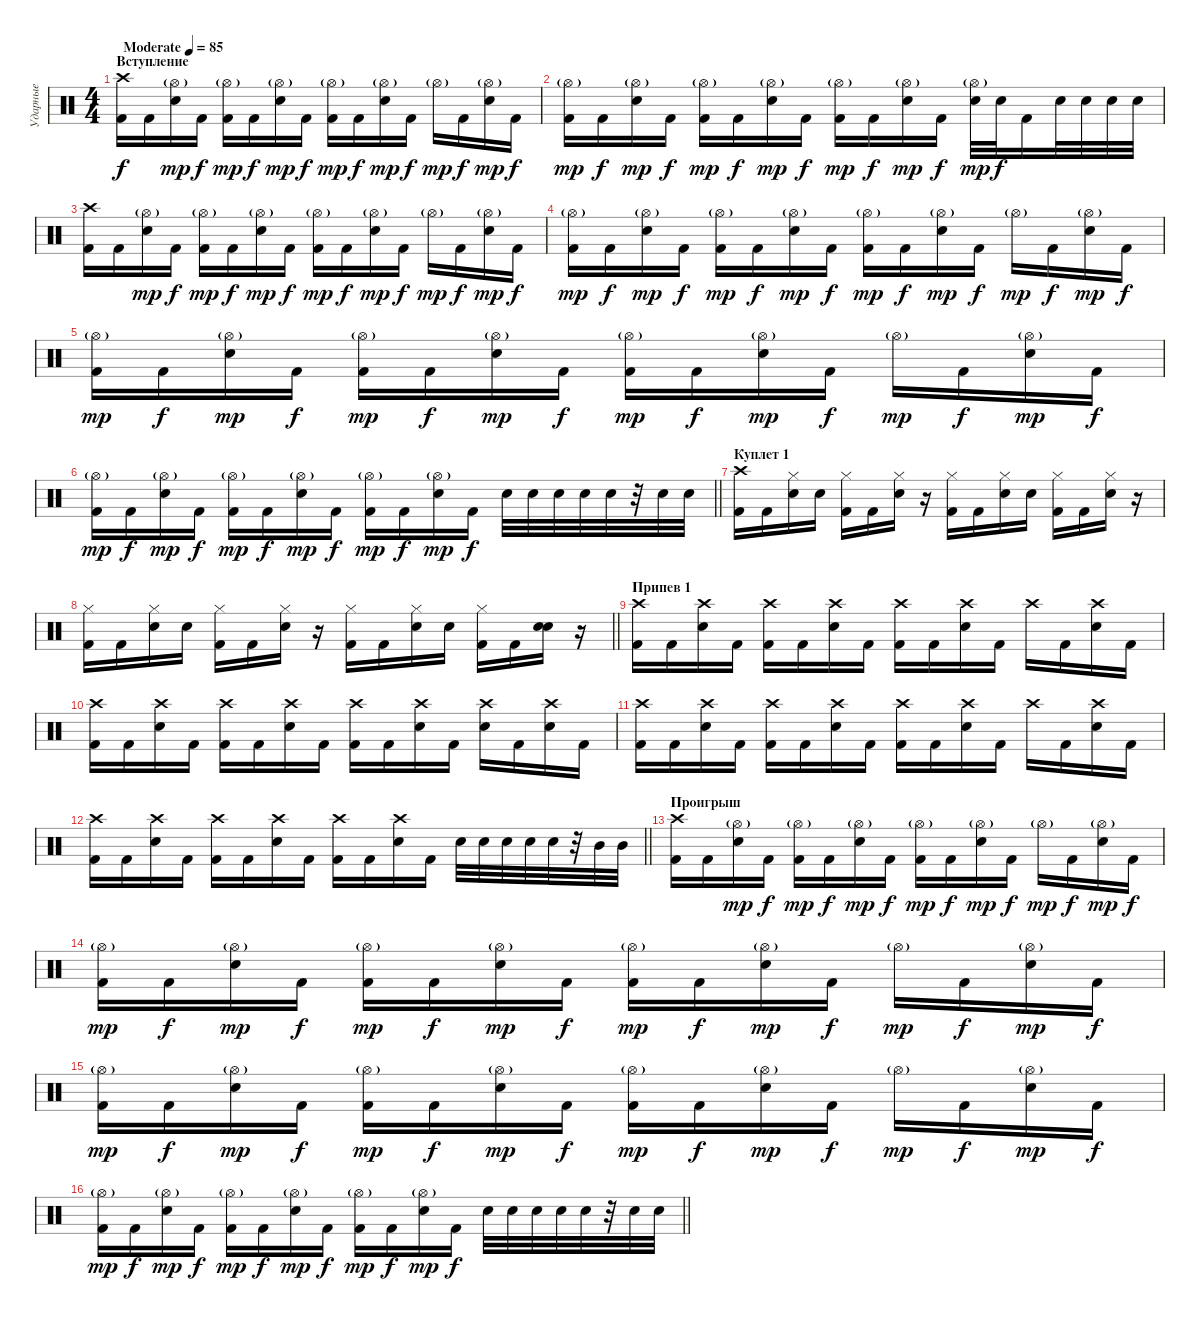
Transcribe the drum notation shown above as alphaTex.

\track ("Ударные" "Ударные") {instrument percussion}
\staff {score}
\articulation defaults
\ts (4 4)
\section ("" "Вступление")
\tempo (85 "Moderate")
\clef neutral
\ks c
("Crash high (hit)" "Kick (hit) 2").16{dy f} "Kick (hit) 2".16 ("Hi-Hat (open)"{g} "Electric Snare (hit)").16{dy mp} "Kick (hit) 2".16{dy f} ("Hi-Hat (open)"{g} "Kick (hit) 2").16{dy mp} "Kick (hit) 2".16{dy f} ("Hi-Hat (open)"{g} "Electric Snare (hit)").16{dy mp} "Kick (hit) 2".16{dy f} ("Hi-Hat (open)"{g} "Kick (hit) 2").16{dy mp} "Kick (hit) 2".16{dy f} ("Hi-Hat (open)"{g} "Electric Snare (hit)").16{dy mp} "Kick (hit) 2".16{dy f} "Hi-Hat (open)"{g}.16{dy mp} "Kick (hit) 2".16{dy f} ("Hi-Hat (open)"{g} "Electric Snare (hit)").16{dy mp} "Kick (hit) 2".16{dy f} |
("Hi-Hat (open)"{g} "Kick (hit) 2").16{dy mp} "Kick (hit) 2".16{dy f} ("Hi-Hat (open)"{g} "Electric Snare (hit)").16{dy mp} "Kick (hit) 2".16{dy f} ("Hi-Hat (open)"{g} "Kick (hit) 2").16{dy mp} "Kick (hit) 2".16{dy f} ("Hi-Hat (open)"{g} "Electric Snare (hit)").16{dy mp} "Kick (hit) 2".16{dy f} ("Hi-Hat (open)"{g} "Kick (hit) 2").16{dy mp} "Kick (hit) 2".16{dy f} ("Hi-Hat (open)"{g} "Electric Snare (hit)").16{dy mp} "Kick (hit) 2".16{dy f} ("Hi-Hat (open)"{g} "Electric Snare (hit)").32{dy mp} "Electric Snare (hit)".32{dy f} "Kick (hit) 2".16 "Electric Snare (hit)".32 "Electric Snare (hit)".32 "Electric Snare (hit)".32 "Electric Snare (hit)".32 |
("Crash high (hit)" "Kick (hit) 2").16 "Kick (hit) 2".16 ("Hi-Hat (open)"{g} "Electric Snare (hit)").16{dy mp} "Kick (hit) 2".16{dy f} ("Hi-Hat (open)"{g} "Kick (hit) 2").16{dy mp} "Kick (hit) 2".16{dy f} ("Hi-Hat (open)"{g} "Electric Snare (hit)").16{dy mp} "Kick (hit) 2".16{dy f} ("Hi-Hat (open)"{g} "Kick (hit) 2").16{dy mp} "Kick (hit) 2".16{dy f} ("Hi-Hat (open)"{g} "Electric Snare (hit)").16{dy mp} "Kick (hit) 2".16{dy f} "Hi-Hat (open)"{g}.16{dy mp} "Kick (hit) 2".16{dy f} ("Hi-Hat (open)"{g} "Electric Snare (hit)").16{dy mp} "Kick (hit) 2".16{dy f} |
("Hi-Hat (open)"{g} "Kick (hit) 2").16{dy mp} "Kick (hit) 2".16{dy f} ("Hi-Hat (open)"{g} "Electric Snare (hit)").16{dy mp} "Kick (hit) 2".16{dy f} ("Hi-Hat (open)"{g} "Kick (hit) 2").16{dy mp} "Kick (hit) 2".16{dy f} ("Hi-Hat (open)"{g} "Electric Snare (hit)").16{dy mp} "Kick (hit) 2".16{dy f} ("Hi-Hat (open)"{g} "Kick (hit) 2").16{dy mp} "Kick (hit) 2".16{dy f} ("Hi-Hat (open)"{g} "Electric Snare (hit)").16{dy mp} "Kick (hit) 2".16{dy f} "Hi-Hat (open)"{g}.16{dy mp} "Kick (hit) 2".16{dy f} ("Hi-Hat (open)"{g} "Electric Snare (hit)").16{dy mp} "Kick (hit) 2".16{dy f} |
("Hi-Hat (open)"{g} "Kick (hit) 2").16{dy mp} "Kick (hit) 2".16{dy f} ("Hi-Hat (open)"{g} "Electric Snare (hit)").16{dy mp} "Kick (hit) 2".16{dy f} ("Hi-Hat (open)"{g} "Kick (hit) 2").16{dy mp} "Kick (hit) 2".16{dy f} ("Hi-Hat (open)"{g} "Electric Snare (hit)").16{dy mp} "Kick (hit) 2".16{dy f} ("Hi-Hat (open)"{g} "Kick (hit) 2").16{dy mp} "Kick (hit) 2".16{dy f} ("Hi-Hat (open)"{g} "Electric Snare (hit)").16{dy mp} "Kick (hit) 2".16{dy f} "Hi-Hat (open)"{g}.16{dy mp} "Kick (hit) 2".16{dy f} ("Hi-Hat (open)"{g} "Electric Snare (hit)").16{dy mp} "Kick (hit) 2".16{dy f} |
\barLineRight lightlight
("Hi-Hat (open)"{g} "Kick (hit) 2").16{dy mp} "Kick (hit) 2".16{dy f} ("Hi-Hat (open)"{g} "Electric Snare (hit)").16{dy mp} "Kick (hit) 2".16{dy f} ("Hi-Hat (open)"{g} "Kick (hit) 2").16{dy mp} "Kick (hit) 2".16{dy f} ("Hi-Hat (open)"{g} "Electric Snare (hit)").16{dy mp} "Kick (hit) 2".16{dy f} ("Hi-Hat (open)"{g} "Kick (hit) 2").16{dy mp} "Kick (hit) 2".16{dy f} ("Hi-Hat (open)"{g} "Electric Snare (hit)").16{dy mp} "Kick (hit) 2".16{dy f} "Electric Snare (hit)".32 "Electric Snare (hit)".32 "Electric Snare (hit)".32 "Electric Snare (hit)".32 "Electric Snare (hit)".32 r.32 "Electric Snare (hit)".32 "Electric Snare (hit)".32 |
\section ("" "Куплет 1")
("Crash high (hit)" "Kick (hit) 2").16 "Kick (hit) 2".16 ("Hi-Hat (closed)" "Electric Snare (hit)").16 "Electric Snare (hit)".16 ("Hi-Hat (closed)" "Kick (hit) 2").16 "Kick (hit) 2".16 ("Hi-Hat (closed)" "Electric Snare (hit)").16 r.16 ("Hi-Hat (closed)" "Kick (hit) 2").16 "Kick (hit) 2".16 ("Hi-Hat (closed)" "Electric Snare (hit)").16 "Electric Snare (hit)".16 ("Hi-Hat (closed)" "Kick (hit) 2").16 "Kick (hit) 2".16 ("Hi-Hat (closed)" "Electric Snare (hit)").16 r.16 |
\barLineRight lightlight
("Hi-Hat (closed)" "Kick (hit) 2").16 "Kick (hit) 2".16 ("Hi-Hat (closed)" "Electric Snare (hit)").16 "Electric Snare (hit)".16 ("Hi-Hat (closed)" "Kick (hit) 2").16 "Kick (hit) 2".16 ("Hi-Hat (closed)" "Electric Snare (hit)").16 r.16 ("Hi-Hat (closed)" "Kick (hit) 2").16 "Kick (hit) 2".16 ("Hi-Hat (closed)" "Electric Snare (hit)").16 "Electric Snare (hit)".16 ("Hi-Hat (closed)" "Kick (hit) 2").16 "Kick (hit) 2".16 ("Electric Snare (hit)" "Electric Snare (hit)").16 r.16 |
\section ("" "Припев 1")
("Crash high (hit)" "Kick (hit) 2").16 "Kick (hit) 2".16 ("Crash high (hit)" "Electric Snare (hit)").16 "Kick (hit) 2".16 ("Crash high (hit)" "Kick (hit) 2").16 "Kick (hit) 2".16 ("Crash high (hit)" "Electric Snare (hit)").16 "Kick (hit) 2".16 ("Crash high (hit)" "Kick (hit) 2").16 "Kick (hit) 2".16 ("Crash high (hit)" "Electric Snare (hit)").16 "Kick (hit) 2".16 "Crash high (hit)".16 "Kick (hit) 2".16 ("Crash high (hit)" "Electric Snare (hit)").16 "Kick (hit) 2".16 |
("Crash high (hit)" "Kick (hit) 2").16 "Kick (hit) 2".16 ("Crash high (hit)" "Electric Snare (hit)").16 "Kick (hit) 2".16 ("Crash high (hit)" "Kick (hit) 2").16 "Kick (hit) 2".16 ("Crash high (hit)" "Electric Snare (hit)").16 "Kick (hit) 2".16 ("Crash high (hit)" "Kick (hit) 2").16 "Kick (hit) 2".16 ("Crash high (hit)" "Electric Snare (hit)").16 "Kick (hit) 2".16 ("Crash high (hit)" "Electric Snare (hit)").16 "Kick (hit) 2".16 ("Crash high (hit)" "Electric Snare (hit)").16 "Kick (hit) 2".16 |
("Crash high (hit)" "Kick (hit) 2").16 "Kick (hit) 2".16 ("Crash high (hit)" "Electric Snare (hit)").16 "Kick (hit) 2".16 ("Crash high (hit)" "Kick (hit) 2").16 "Kick (hit) 2".16 ("Crash high (hit)" "Electric Snare (hit)").16 "Kick (hit) 2".16 ("Crash high (hit)" "Kick (hit) 2").16 "Kick (hit) 2".16 ("Crash high (hit)" "Electric Snare (hit)").16 "Kick (hit) 2".16 "Crash high (hit)".16 "Kick (hit) 2".16 ("Crash high (hit)" "Electric Snare (hit)").16 "Kick (hit) 2".16 |
\barLineRight lightlight
("Crash high (hit)" "Kick (hit) 2").16 "Kick (hit) 2".16 ("Crash high (hit)" "Electric Snare (hit)").16 "Kick (hit) 2".16 ("Crash high (hit)" "Kick (hit) 2").16 "Kick (hit) 2".16 ("Crash high (hit)" "Electric Snare (hit)").16 "Kick (hit) 2".16 ("Crash high (hit)" "Kick (hit) 2").16 "Kick (hit) 2".16 ("Crash high (hit)" "Electric Snare (hit)").16 "Kick (hit) 2".16 "Electric Snare (hit)".32 "Electric Snare (hit)".32 "Electric Snare (hit)".32 "Electric Snare (hit)".32 "Electric Snare (hit)".32 r.32 "Mid Tom (hit)".32 "Mid Tom (hit)".32 |
\section ("" "Проигрыш")
("Crash high (hit)" "Kick (hit) 2").16 "Kick (hit) 2".16 ("Hi-Hat (open)"{g} "Electric Snare (hit)").16{dy mp} "Kick (hit) 2".16{dy f} ("Hi-Hat (open)"{g} "Kick (hit) 2").16{dy mp} "Kick (hit) 2".16{dy f} ("Hi-Hat (open)"{g} "Electric Snare (hit)").16{dy mp} "Kick (hit) 2".16{dy f} ("Hi-Hat (open)"{g} "Kick (hit) 2").16{dy mp} "Kick (hit) 2".16{dy f} ("Hi-Hat (open)"{g} "Electric Snare (hit)").16{dy mp} "Kick (hit) 2".16{dy f} "Hi-Hat (open)"{g}.16{dy mp} "Kick (hit) 2".16{dy f} ("Hi-Hat (open)"{g} "Electric Snare (hit)").16{dy mp} "Kick (hit) 2".16{dy f} |
("Hi-Hat (open)"{g} "Kick (hit) 2").16{dy mp} "Kick (hit) 2".16{dy f} ("Hi-Hat (open)"{g} "Electric Snare (hit)").16{dy mp} "Kick (hit) 2".16{dy f} ("Hi-Hat (open)"{g} "Kick (hit) 2").16{dy mp} "Kick (hit) 2".16{dy f} ("Hi-Hat (open)"{g} "Electric Snare (hit)").16{dy mp} "Kick (hit) 2".16{dy f} ("Hi-Hat (open)"{g} "Kick (hit) 2").16{dy mp} "Kick (hit) 2".16{dy f} ("Hi-Hat (open)"{g} "Electric Snare (hit)").16{dy mp} "Kick (hit) 2".16{dy f} "Hi-Hat (open)"{g}.16{dy mp} "Kick (hit) 2".16{dy f} ("Hi-Hat (open)"{g} "Electric Snare (hit)").16{dy mp} "Kick (hit) 2".16{dy f} |
("Hi-Hat (open)"{g} "Kick (hit) 2").16{dy mp} "Kick (hit) 2".16{dy f} ("Hi-Hat (open)"{g} "Electric Snare (hit)").16{dy mp} "Kick (hit) 2".16{dy f} ("Hi-Hat (open)"{g} "Kick (hit) 2").16{dy mp} "Kick (hit) 2".16{dy f} ("Hi-Hat (open)"{g} "Electric Snare (hit)").16{dy mp} "Kick (hit) 2".16{dy f} ("Hi-Hat (open)"{g} "Kick (hit) 2").16{dy mp} "Kick (hit) 2".16{dy f} ("Hi-Hat (open)"{g} "Electric Snare (hit)").16{dy mp} "Kick (hit) 2".16{dy f} "Hi-Hat (open)"{g}.16{dy mp} "Kick (hit) 2".16{dy f} ("Hi-Hat (open)"{g} "Electric Snare (hit)").16{dy mp} "Kick (hit) 2".16{dy f} |
\barLineRight lightlight
("Hi-Hat (open)"{g} "Kick (hit) 2").16{dy mp} "Kick (hit) 2".16{dy f} ("Hi-Hat (open)"{g} "Electric Snare (hit)").16{dy mp} "Kick (hit) 2".16{dy f} ("Hi-Hat (open)"{g} "Kick (hit) 2").16{dy mp} "Kick (hit) 2".16{dy f} ("Hi-Hat (open)"{g} "Electric Snare (hit)").16{dy mp} "Kick (hit) 2".16{dy f} ("Hi-Hat (open)"{g} "Kick (hit) 2").16{dy mp} "Kick (hit) 2".16{dy f} ("Hi-Hat (open)"{g} "Electric Snare (hit)").16{dy mp} "Kick (hit) 2".16{dy f} "Electric Snare (hit)".32 "Electric Snare (hit)".32 "Electric Snare (hit)".32 "Electric Snare (hit)".32 "Electric Snare (hit)".32 r.32 "Electric Snare (hit)".32 "Electric Snare (hit)".32
